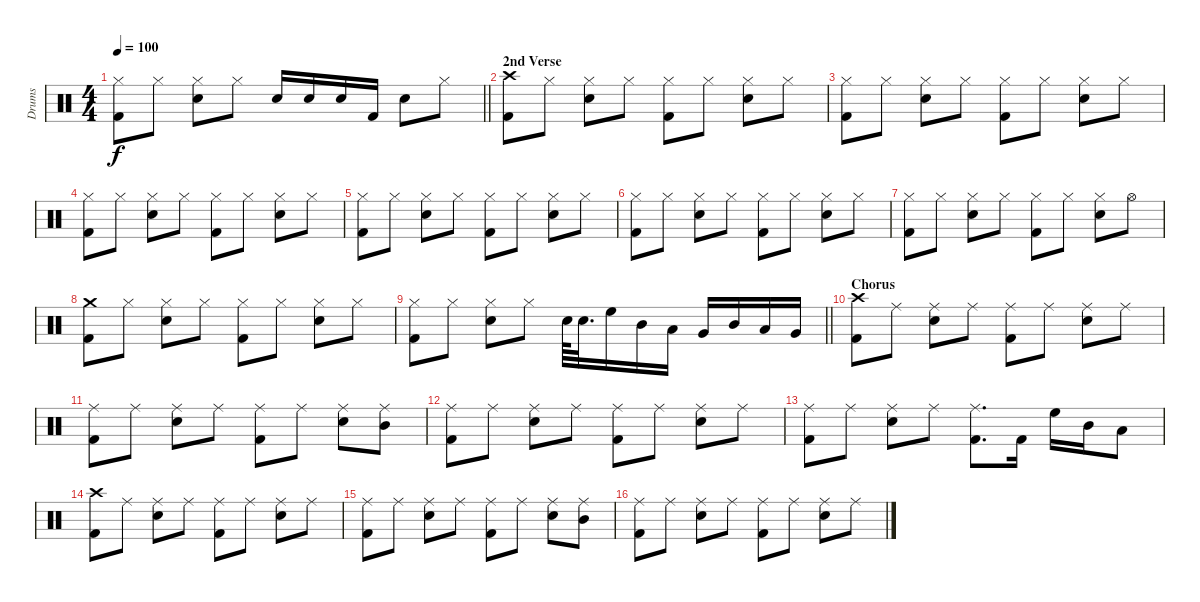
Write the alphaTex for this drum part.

\track ("Drums" "Drums") {instrument percussion}
\staff {score}
\articulation defaults
\ts (4 4)
\tempo 100
\clef neutral
\barLineRight lightlight
\ks c
("Hi-Hat (closed)" "Kick (hit) 2").8{dy f} "Hi-Hat (closed)".8 ("Hi-Hat (closed)" "Snare (hit) 2").8 "Hi-Hat (closed)".8 "Snare (hit) 2".16 "Snare (hit) 2".16 "Snare (hit) 2".16 "Kick (hit) 2".16 "Snare (hit) 2".8 "Hi-Hat (closed)".8 |
\section ("" "2nd Verse")
("Crash high (hit)" "Kick (hit) 2").8 "Hi-Hat (closed)".8 ("Hi-Hat (closed)" "Snare (hit) 2").8 "Hi-Hat (closed)".8 ("Hi-Hat (closed)" "Kick (hit) 2").8 "Hi-Hat (closed)".8 ("Hi-Hat (closed)" "Snare (hit) 2").8 "Hi-Hat (closed)".8 |
("Hi-Hat (closed)" "Kick (hit) 2").8 "Hi-Hat (closed)".8 ("Hi-Hat (closed)" "Snare (hit) 2").8 "Hi-Hat (closed)".8 ("Hi-Hat (closed)" "Kick (hit) 2").8 "Hi-Hat (closed)".8 ("Hi-Hat (closed)" "Snare (hit) 2").8 "Hi-Hat (closed)".8 |
("Hi-Hat (closed)" "Kick (hit) 2").8 "Hi-Hat (closed)".8 ("Hi-Hat (closed)" "Snare (hit) 2").8 "Hi-Hat (closed)".8 ("Hi-Hat (closed)" "Kick (hit) 2").8 "Hi-Hat (closed)".8 ("Hi-Hat (closed)" "Snare (hit) 2").8 "Hi-Hat (closed)".8 |
("Hi-Hat (closed)" "Kick (hit) 2").8 "Hi-Hat (closed)".8 ("Hi-Hat (closed)" "Snare (hit) 2").8 "Hi-Hat (closed)".8 ("Hi-Hat (closed)" "Kick (hit) 2").8 "Hi-Hat (closed)".8 ("Hi-Hat (closed)" "Snare (hit) 2").8 "Hi-Hat (closed)".8 |
("Hi-Hat (closed)" "Kick (hit) 2").8 "Hi-Hat (closed)".8 ("Hi-Hat (closed)" "Snare (hit) 2").8 "Hi-Hat (closed)".8 ("Hi-Hat (closed)" "Kick (hit) 2").8 "Hi-Hat (closed)".8 ("Hi-Hat (closed)" "Snare (hit) 2").8 "Hi-Hat (closed)".8 |
("Hi-Hat (closed)" "Kick (hit) 2").8 "Hi-Hat (closed)".8 ("Hi-Hat (closed)" "Snare (hit) 2").8 "Hi-Hat (closed)".8 ("Hi-Hat (closed)" "Kick (hit) 2").8 "Hi-Hat (closed)".8 ("Hi-Hat (closed)" "Snare (hit) 2").8 "Hi-Hat (open)".8 |
("Crash medium (hit)" "Kick (hit) 2").8 "Hi-Hat (closed)".8 ("Hi-Hat (closed)" "Snare (hit) 2").8 "Hi-Hat (closed)".8 ("Hi-Hat (closed)" "Kick (hit) 2").8 "Hi-Hat (closed)".8 ("Hi-Hat (closed)" "Snare (hit) 2").8 "Hi-Hat (closed)".8 |
\barLineRight lightlight
("Hi-Hat (closed)" "Kick (hit) 2").8 "Hi-Hat (closed)".8 ("Hi-Hat (closed)" "Snare (hit) 2").8 "Hi-Hat (closed)".8 "Snare (hit) 2".64 "Snare (hit) 2".32{d} "High Floor Tom (hit)".16 "Mid Tom (hit)".16 "Low Tom (hit)".16 "Very Low Tom (hit)".16 "Mid Tom (hit)".16 "Low Tom (hit)".16 "Very Low Tom (hit)".16 |
\section ("" "Chorus")
("Crash high (hit)" "Kick (hit) 2").8 "Ride (middle)".8 ("Ride (middle)" "Snare (hit) 2").8 "Ride (middle)".8 ("Ride (middle)" "Kick (hit) 2").8 "Ride (middle)".8 ("Ride (middle)" "Snare (hit) 2").8 "Ride (middle)".8 |
("Ride (middle)" "Kick (hit) 2").8 "Ride (middle)".8 ("Ride (middle)" "Snare (hit) 2").8 "Ride (middle)".8 ("Ride (middle)" "Kick (hit) 2").8 "Ride (middle)".8 ("Ride (middle)" "Snare (hit) 2").8 ("Ride (middle)" "Mid Tom (hit)").8 |
("Ride (middle)" "Kick (hit) 2").8 "Ride (middle)".8 ("Ride (middle)" "Snare (hit) 2").8 "Ride (middle)".8 ("Ride (middle)" "Kick (hit) 2").8 "Ride (middle)".8 ("Ride (middle)" "Snare (hit) 2").8 "Ride (middle)".8 |
("Ride (middle)" "Kick (hit) 2").8 "Ride (middle)".8 ("Ride (middle)" "Snare (hit) 2").8 "Ride (middle)".8 ("Ride (middle)" "Kick (hit) 2").8{d} "Kick (hit) 2".16 "High Floor Tom (hit)".16 "Mid Tom (hit)".16 "Low Tom (hit)".8 |
("Crash high (hit)" "Kick (hit) 2").8 "Ride (middle)".8 ("Ride (middle)" "Snare (hit) 2").8 "Ride (middle)".8 ("Ride (middle)" "Kick (hit) 2").8 "Ride (middle)".8 ("Ride (middle)" "Snare (hit) 2").8 "Ride (middle)".8 |
("Ride (middle)" "Kick (hit) 2").8 "Ride (middle)".8 ("Ride (middle)" "Snare (hit) 2").8 "Ride (middle)".8 ("Ride (middle)" "Kick (hit) 2").8 "Ride (middle)".8 ("Ride (middle)" "Snare (hit) 2").8 ("Ride (middle)" "Mid Tom (hit)").8 |
("Ride (middle)" "Kick (hit) 2").8 "Ride (middle)".8 ("Ride (middle)" "Snare (hit) 2").8 "Ride (middle)".8 ("Ride (middle)" "Kick (hit) 2").8 "Ride (middle)".8 ("Ride (middle)" "Snare (hit) 2").8 "Ride (middle)".8
